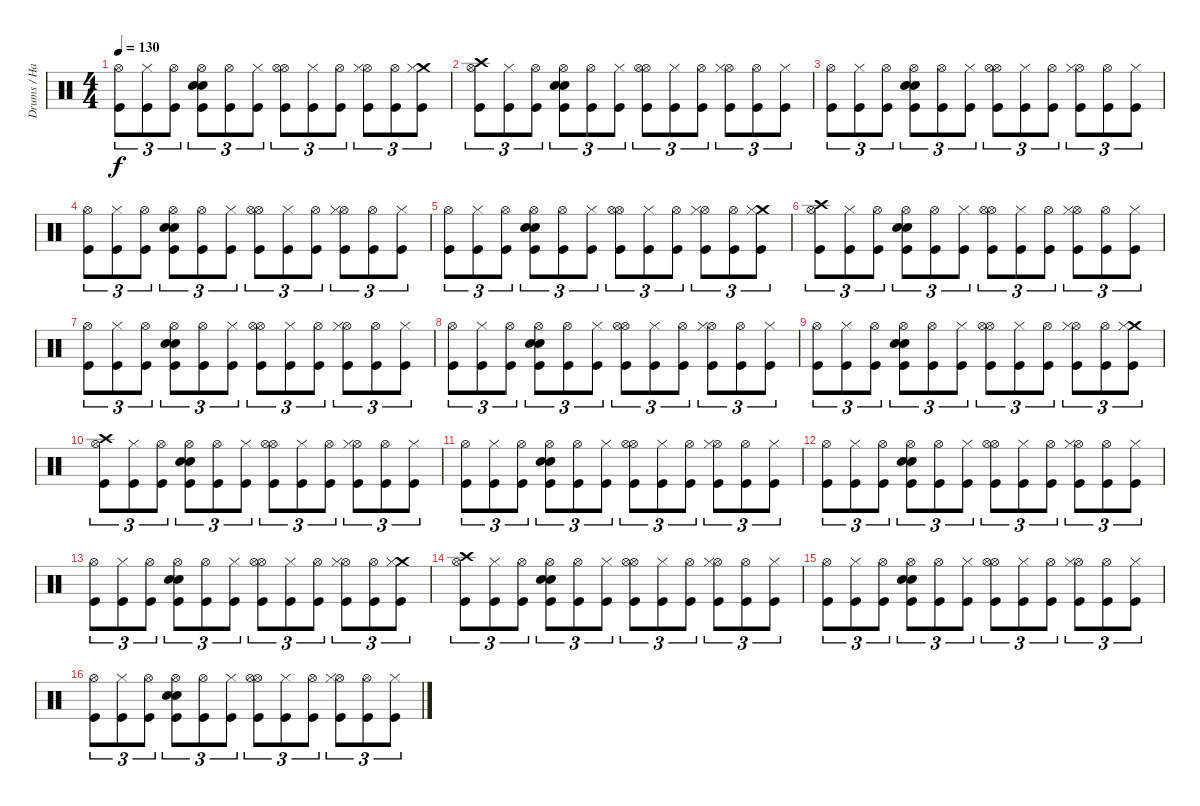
\track ("Drums / Hammer of God" "Drums / Ha") {instrument percussion}
\staff {score}
\articulation defaults
\ts (4 4)
\tempo 130
\clef neutral
\ks c
("Hi-Hat (open)" "Kick (hit)").8{tu (3 2) dy f} ("Hi-Hat (closed)" "Kick (hit)").8{tu (3 2)} ("Hi-Hat (open)" "Kick (hit)").8{tu (3 2)} ("Snare (hit) 2" "Hi-Hat (open)" "Snare (hit) 2" "Kick (hit)").8{tu (3 2)} ("Hi-Hat (open)" "Kick (hit)").8{tu (3 2)} ("Hi-Hat (closed)" "Kick (hit)").8{tu (3 2)} ("Hi-Hat (open)" "Hi-Hat (open)" "Kick (hit)").8{tu (3 2)} ("Hi-Hat (closed)" "Kick (hit)").8{tu (3 2)} ("Hi-Hat (open)" "Kick (hit)").8{tu (3 2)} ("Hi-Hat (open)" "Hi-Hat (closed)" "Kick (hit)").8{tu (3 2)} ("Hi-Hat (open)" "Kick (hit)").8{tu (3 2)} ("Crash medium (hit)" "Hi-Hat (closed)" "Kick (hit)").8{tu (3 2)} |
("Crash high (hit)" "Hi-Hat (open)" "Kick (hit)").8{tu (3 2)} ("Hi-Hat (closed)" "Kick (hit)").8{tu (3 2)} ("Hi-Hat (open)" "Kick (hit)").8{tu (3 2)} ("Snare (hit) 2" "Hi-Hat (open)" "Snare (hit) 2" "Kick (hit)").8{tu (3 2)} ("Hi-Hat (open)" "Kick (hit)").8{tu (3 2)} ("Hi-Hat (closed)" "Kick (hit)").8{tu (3 2)} ("Hi-Hat (open)" "Hi-Hat (open)" "Kick (hit)").8{tu (3 2)} ("Hi-Hat (closed)" "Kick (hit)").8{tu (3 2)} ("Hi-Hat (open)" "Kick (hit)").8{tu (3 2)} ("Hi-Hat (open)" "Hi-Hat (closed)" "Kick (hit)").8{tu (3 2)} ("Hi-Hat (open)" "Kick (hit)").8{tu (3 2)} ("Hi-Hat (closed)" "Kick (hit)").8{tu (3 2)} |
("Hi-Hat (open)" "Kick (hit)").8{tu (3 2)} ("Hi-Hat (closed)" "Kick (hit)").8{tu (3 2)} ("Hi-Hat (open)" "Kick (hit)").8{tu (3 2)} ("Snare (hit) 2" "Hi-Hat (open)" "Snare (hit) 2" "Kick (hit)").8{tu (3 2)} ("Hi-Hat (open)" "Kick (hit)").8{tu (3 2)} ("Hi-Hat (closed)" "Kick (hit)").8{tu (3 2)} ("Hi-Hat (open)" "Hi-Hat (open)" "Kick (hit)").8{tu (3 2)} ("Hi-Hat (closed)" "Kick (hit)").8{tu (3 2)} ("Hi-Hat (open)" "Kick (hit)").8{tu (3 2)} ("Hi-Hat (open)" "Hi-Hat (closed)" "Kick (hit)").8{tu (3 2)} ("Hi-Hat (open)" "Kick (hit)").8{tu (3 2)} ("Hi-Hat (closed)" "Kick (hit)").8{tu (3 2)} |
("Hi-Hat (open)" "Kick (hit)").8{tu (3 2)} ("Hi-Hat (closed)" "Kick (hit)").8{tu (3 2)} ("Hi-Hat (open)" "Kick (hit)").8{tu (3 2)} ("Snare (hit) 2" "Hi-Hat (open)" "Snare (hit) 2" "Kick (hit)").8{tu (3 2)} ("Hi-Hat (open)" "Kick (hit)").8{tu (3 2)} ("Hi-Hat (closed)" "Kick (hit)").8{tu (3 2)} ("Hi-Hat (open)" "Hi-Hat (open)" "Kick (hit)").8{tu (3 2)} ("Hi-Hat (closed)" "Kick (hit)").8{tu (3 2)} ("Hi-Hat (open)" "Kick (hit)").8{tu (3 2)} ("Hi-Hat (open)" "Hi-Hat (closed)" "Kick (hit)").8{tu (3 2)} ("Hi-Hat (open)" "Kick (hit)").8{tu (3 2)} ("Hi-Hat (closed)" "Kick (hit)").8{tu (3 2)} |
("Hi-Hat (open)" "Kick (hit)").8{tu (3 2)} ("Hi-Hat (closed)" "Kick (hit)").8{tu (3 2)} ("Hi-Hat (open)" "Kick (hit)").8{tu (3 2)} ("Snare (hit) 2" "Hi-Hat (open)" "Snare (hit) 2" "Kick (hit)").8{tu (3 2)} ("Hi-Hat (open)" "Kick (hit)").8{tu (3 2)} ("Hi-Hat (closed)" "Kick (hit)").8{tu (3 2)} ("Hi-Hat (open)" "Hi-Hat (open)" "Kick (hit)").8{tu (3 2)} ("Hi-Hat (closed)" "Kick (hit)").8{tu (3 2)} ("Hi-Hat (open)" "Kick (hit)").8{tu (3 2)} ("Hi-Hat (open)" "Hi-Hat (closed)" "Kick (hit)").8{tu (3 2)} ("Hi-Hat (open)" "Kick (hit)").8{tu (3 2)} ("Crash medium (hit)" "Hi-Hat (closed)" "Kick (hit)").8{tu (3 2)} |
("Crash high (hit)" "Hi-Hat (open)" "Kick (hit)").8{tu (3 2)} ("Hi-Hat (closed)" "Kick (hit)").8{tu (3 2)} ("Hi-Hat (open)" "Kick (hit)").8{tu (3 2)} ("Snare (hit) 2" "Hi-Hat (open)" "Snare (hit) 2" "Kick (hit)").8{tu (3 2)} ("Hi-Hat (open)" "Kick (hit)").8{tu (3 2)} ("Hi-Hat (closed)" "Kick (hit)").8{tu (3 2)} ("Hi-Hat (open)" "Hi-Hat (open)" "Kick (hit)").8{tu (3 2)} ("Hi-Hat (closed)" "Kick (hit)").8{tu (3 2)} ("Hi-Hat (open)" "Kick (hit)").8{tu (3 2)} ("Hi-Hat (open)" "Hi-Hat (closed)" "Kick (hit)").8{tu (3 2)} ("Hi-Hat (open)" "Kick (hit)").8{tu (3 2)} ("Hi-Hat (closed)" "Kick (hit)").8{tu (3 2)} |
("Hi-Hat (open)" "Kick (hit)").8{tu (3 2)} ("Hi-Hat (closed)" "Kick (hit)").8{tu (3 2)} ("Hi-Hat (open)" "Kick (hit)").8{tu (3 2)} ("Snare (hit) 2" "Hi-Hat (open)" "Snare (hit) 2" "Kick (hit)").8{tu (3 2)} ("Hi-Hat (open)" "Kick (hit)").8{tu (3 2)} ("Hi-Hat (closed)" "Kick (hit)").8{tu (3 2)} ("Hi-Hat (open)" "Hi-Hat (open)" "Kick (hit)").8{tu (3 2)} ("Hi-Hat (closed)" "Kick (hit)").8{tu (3 2)} ("Hi-Hat (open)" "Kick (hit)").8{tu (3 2)} ("Hi-Hat (open)" "Hi-Hat (closed)" "Kick (hit)").8{tu (3 2)} ("Hi-Hat (open)" "Kick (hit)").8{tu (3 2)} ("Hi-Hat (closed)" "Kick (hit)").8{tu (3 2)} |
("Hi-Hat (open)" "Kick (hit)").8{tu (3 2)} ("Hi-Hat (closed)" "Kick (hit)").8{tu (3 2)} ("Hi-Hat (open)" "Kick (hit)").8{tu (3 2)} ("Snare (hit) 2" "Hi-Hat (open)" "Snare (hit) 2" "Kick (hit)").8{tu (3 2)} ("Hi-Hat (open)" "Kick (hit)").8{tu (3 2)} ("Hi-Hat (closed)" "Kick (hit)").8{tu (3 2)} ("Hi-Hat (open)" "Hi-Hat (open)" "Kick (hit)").8{tu (3 2)} ("Hi-Hat (closed)" "Kick (hit)").8{tu (3 2)} ("Hi-Hat (open)" "Kick (hit)").8{tu (3 2)} ("Hi-Hat (open)" "Hi-Hat (closed)" "Kick (hit)").8{tu (3 2)} ("Hi-Hat (open)" "Kick (hit)").8{tu (3 2)} ("Hi-Hat (closed)" "Kick (hit)").8{tu (3 2)} |
("Hi-Hat (open)" "Kick (hit)").8{tu (3 2)} ("Hi-Hat (closed)" "Kick (hit)").8{tu (3 2)} ("Hi-Hat (open)" "Kick (hit)").8{tu (3 2)} ("Snare (hit) 2" "Hi-Hat (open)" "Snare (hit) 2" "Kick (hit)").8{tu (3 2)} ("Hi-Hat (open)" "Kick (hit)").8{tu (3 2)} ("Hi-Hat (closed)" "Kick (hit)").8{tu (3 2)} ("Hi-Hat (open)" "Hi-Hat (open)" "Kick (hit)").8{tu (3 2)} ("Hi-Hat (closed)" "Kick (hit)").8{tu (3 2)} ("Hi-Hat (open)" "Kick (hit)").8{tu (3 2)} ("Hi-Hat (open)" "Hi-Hat (closed)" "Kick (hit)").8{tu (3 2)} ("Hi-Hat (open)" "Kick (hit)").8{tu (3 2)} ("Crash medium (hit)" "Hi-Hat (closed)" "Kick (hit)").8{tu (3 2)} |
("Crash high (hit)" "Hi-Hat (open)" "Kick (hit)").8{tu (3 2)} ("Hi-Hat (closed)" "Kick (hit)").8{tu (3 2)} ("Hi-Hat (open)" "Kick (hit)").8{tu (3 2)} ("Snare (hit) 2" "Hi-Hat (open)" "Snare (hit) 2" "Kick (hit)").8{tu (3 2)} ("Hi-Hat (open)" "Kick (hit)").8{tu (3 2)} ("Hi-Hat (closed)" "Kick (hit)").8{tu (3 2)} ("Hi-Hat (open)" "Hi-Hat (open)" "Kick (hit)").8{tu (3 2)} ("Hi-Hat (closed)" "Kick (hit)").8{tu (3 2)} ("Hi-Hat (open)" "Kick (hit)").8{tu (3 2)} ("Hi-Hat (open)" "Hi-Hat (closed)" "Kick (hit)").8{tu (3 2)} ("Hi-Hat (open)" "Kick (hit)").8{tu (3 2)} ("Hi-Hat (closed)" "Kick (hit)").8{tu (3 2)} |
("Hi-Hat (open)" "Kick (hit)").8{tu (3 2)} ("Hi-Hat (closed)" "Kick (hit)").8{tu (3 2)} ("Hi-Hat (open)" "Kick (hit)").8{tu (3 2)} ("Snare (hit) 2" "Hi-Hat (open)" "Snare (hit) 2" "Kick (hit)").8{tu (3 2)} ("Hi-Hat (open)" "Kick (hit)").8{tu (3 2)} ("Hi-Hat (closed)" "Kick (hit)").8{tu (3 2)} ("Hi-Hat (open)" "Hi-Hat (open)" "Kick (hit)").8{tu (3 2)} ("Hi-Hat (closed)" "Kick (hit)").8{tu (3 2)} ("Hi-Hat (open)" "Kick (hit)").8{tu (3 2)} ("Hi-Hat (open)" "Hi-Hat (closed)" "Kick (hit)").8{tu (3 2)} ("Hi-Hat (open)" "Kick (hit)").8{tu (3 2)} ("Hi-Hat (closed)" "Kick (hit)").8{tu (3 2)} |
("Hi-Hat (open)" "Kick (hit)").8{tu (3 2)} ("Hi-Hat (closed)" "Kick (hit)").8{tu (3 2)} ("Hi-Hat (open)" "Kick (hit)").8{tu (3 2)} ("Snare (hit) 2" "Hi-Hat (open)" "Snare (hit) 2" "Kick (hit)").8{tu (3 2)} ("Hi-Hat (open)" "Kick (hit)").8{tu (3 2)} ("Hi-Hat (closed)" "Kick (hit)").8{tu (3 2)} ("Hi-Hat (open)" "Hi-Hat (open)" "Kick (hit)").8{tu (3 2)} ("Hi-Hat (closed)" "Kick (hit)").8{tu (3 2)} ("Hi-Hat (open)" "Kick (hit)").8{tu (3 2)} ("Hi-Hat (open)" "Hi-Hat (closed)" "Kick (hit)").8{tu (3 2)} ("Hi-Hat (open)" "Kick (hit)").8{tu (3 2)} ("Hi-Hat (closed)" "Kick (hit)").8{tu (3 2)} |
("Hi-Hat (open)" "Kick (hit)").8{tu (3 2)} ("Hi-Hat (closed)" "Kick (hit)").8{tu (3 2)} ("Hi-Hat (open)" "Kick (hit)").8{tu (3 2)} ("Snare (hit) 2" "Hi-Hat (open)" "Snare (hit) 2" "Kick (hit)").8{tu (3 2)} ("Hi-Hat (open)" "Kick (hit)").8{tu (3 2)} ("Hi-Hat (closed)" "Kick (hit)").8{tu (3 2)} ("Hi-Hat (open)" "Hi-Hat (open)" "Kick (hit)").8{tu (3 2)} ("Hi-Hat (closed)" "Kick (hit)").8{tu (3 2)} ("Hi-Hat (open)" "Kick (hit)").8{tu (3 2)} ("Hi-Hat (open)" "Hi-Hat (closed)" "Kick (hit)").8{tu (3 2)} ("Hi-Hat (open)" "Kick (hit)").8{tu (3 2)} ("Crash medium (hit)" "Hi-Hat (closed)" "Kick (hit)").8{tu (3 2)} |
("Crash high (hit)" "Hi-Hat (open)" "Kick (hit)").8{tu (3 2)} ("Hi-Hat (closed)" "Kick (hit)").8{tu (3 2)} ("Hi-Hat (open)" "Kick (hit)").8{tu (3 2)} ("Snare (hit) 2" "Hi-Hat (open)" "Snare (hit) 2" "Kick (hit)").8{tu (3 2)} ("Hi-Hat (open)" "Kick (hit)").8{tu (3 2)} ("Hi-Hat (closed)" "Kick (hit)").8{tu (3 2)} ("Hi-Hat (open)" "Hi-Hat (open)" "Kick (hit)").8{tu (3 2)} ("Hi-Hat (closed)" "Kick (hit)").8{tu (3 2)} ("Hi-Hat (open)" "Kick (hit)").8{tu (3 2)} ("Hi-Hat (open)" "Hi-Hat (closed)" "Kick (hit)").8{tu (3 2)} ("Hi-Hat (open)" "Kick (hit)").8{tu (3 2)} ("Hi-Hat (closed)" "Kick (hit)").8{tu (3 2)} |
("Hi-Hat (open)" "Kick (hit)").8{tu (3 2)} ("Hi-Hat (closed)" "Kick (hit)").8{tu (3 2)} ("Hi-Hat (open)" "Kick (hit)").8{tu (3 2)} ("Snare (hit) 2" "Hi-Hat (open)" "Snare (hit) 2" "Kick (hit)").8{tu (3 2)} ("Hi-Hat (open)" "Kick (hit)").8{tu (3 2)} ("Hi-Hat (closed)" "Kick (hit)").8{tu (3 2)} ("Hi-Hat (open)" "Hi-Hat (open)" "Kick (hit)").8{tu (3 2)} ("Hi-Hat (closed)" "Kick (hit)").8{tu (3 2)} ("Hi-Hat (open)" "Kick (hit)").8{tu (3 2)} ("Hi-Hat (open)" "Hi-Hat (closed)" "Kick (hit)").8{tu (3 2)} ("Hi-Hat (open)" "Kick (hit)").8{tu (3 2)} ("Hi-Hat (closed)" "Kick (hit)").8{tu (3 2)} |
("Hi-Hat (open)" "Kick (hit)").8{tu (3 2)} ("Hi-Hat (closed)" "Kick (hit)").8{tu (3 2)} ("Hi-Hat (open)" "Kick (hit)").8{tu (3 2)} ("Snare (hit) 2" "Hi-Hat (open)" "Snare (hit) 2" "Kick (hit)").8{tu (3 2)} ("Hi-Hat (open)" "Kick (hit)").8{tu (3 2)} ("Hi-Hat (closed)" "Kick (hit)").8{tu (3 2)} ("Hi-Hat (open)" "Hi-Hat (open)" "Kick (hit)").8{tu (3 2)} ("Hi-Hat (closed)" "Kick (hit)").8{tu (3 2)} ("Hi-Hat (open)" "Kick (hit)").8{tu (3 2)} ("Hi-Hat (open)" "Hi-Hat (closed)" "Kick (hit)").8{tu (3 2)} ("Hi-Hat (open)" "Kick (hit)").8{tu (3 2)} ("Hi-Hat (closed)" "Kick (hit)").8{tu (3 2)}
